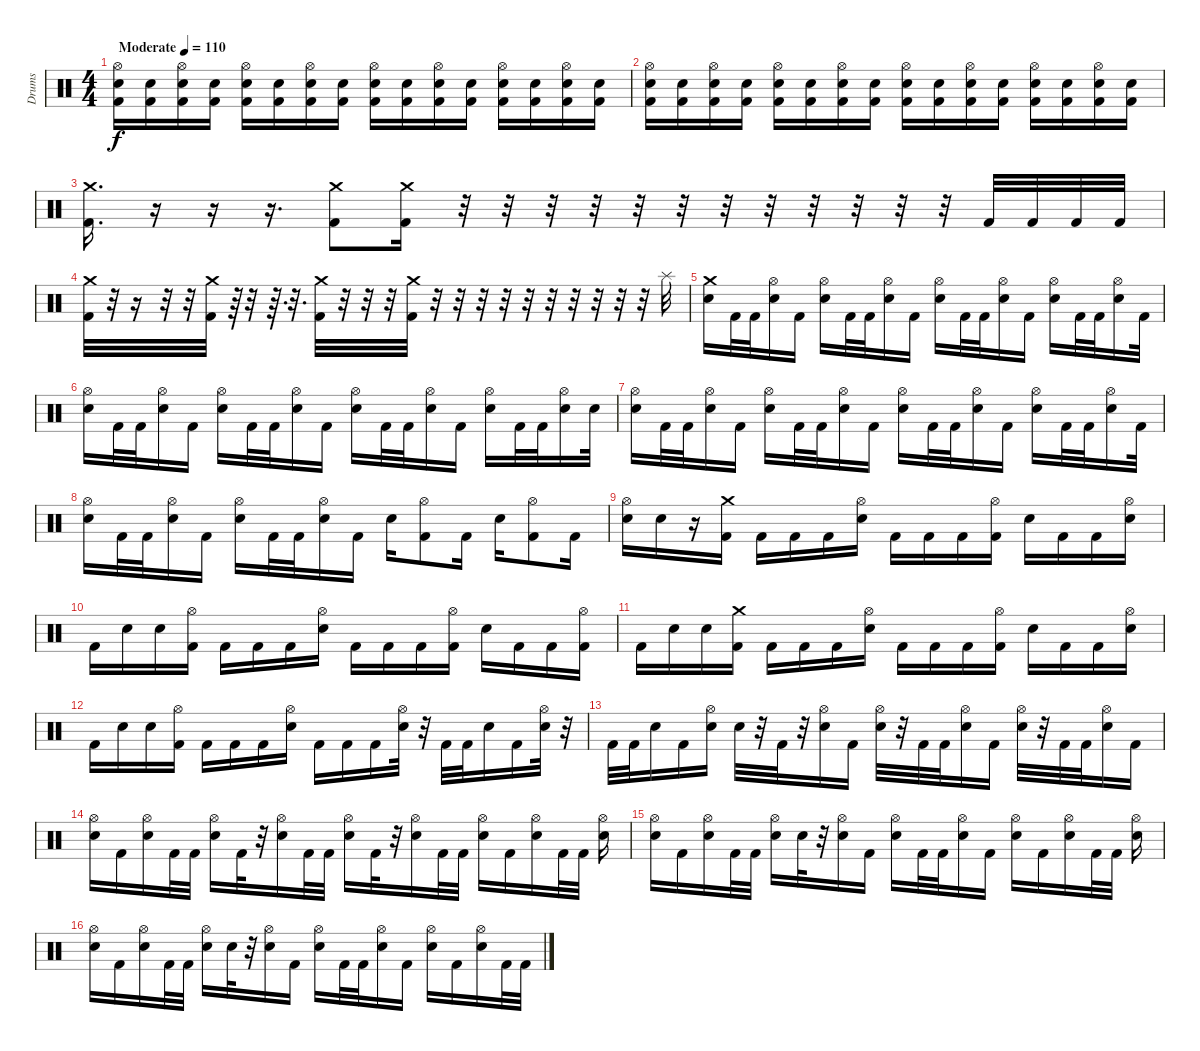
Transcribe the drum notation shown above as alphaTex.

\track ("Drums" "Drums") {instrument percussion}
\staff {score}
\articulation defaults
\ts (4 4)
\tempo (110 "Moderate")
\clef neutral
\ks c
("Hi-Hat (open)" "Snare (hit) 2" "Kick (hit) 2").16{dy f} ("Snare (hit) 2" "Kick (hit) 2").16 ("Hi-Hat (open)" "Snare (hit) 2" "Kick (hit) 2").16 ("Snare (hit) 2" "Kick (hit) 2").16 ("Hi-Hat (open)" "Snare (hit) 2" "Kick (hit) 2").16 ("Snare (hit) 2" "Kick (hit) 2").16 ("Hi-Hat (open)" "Snare (hit) 2" "Kick (hit) 2").16 ("Snare (hit) 2" "Kick (hit) 2").16 ("Hi-Hat (open)" "Snare (hit) 2" "Kick (hit) 2").16 ("Snare (hit) 2" "Kick (hit) 2").16 ("Hi-Hat (open)" "Snare (hit) 2" "Kick (hit) 2").16 ("Snare (hit) 2" "Kick (hit) 2").16 ("Hi-Hat (open)" "Snare (hit) 2" "Kick (hit) 2").16 ("Snare (hit) 2" "Kick (hit) 2").16 ("Hi-Hat (open)" "Snare (hit) 2" "Kick (hit) 2").16 ("Snare (hit) 2" "Kick (hit) 2").16 |
("Hi-Hat (open)" "Snare (hit) 2" "Kick (hit) 2").16 ("Snare (hit) 2" "Kick (hit) 2").16 ("Hi-Hat (open)" "Snare (hit) 2" "Kick (hit) 2").16 ("Snare (hit) 2" "Kick (hit) 2").16 ("Hi-Hat (open)" "Snare (hit) 2" "Kick (hit) 2").16 ("Snare (hit) 2" "Kick (hit) 2").16 ("Hi-Hat (open)" "Snare (hit) 2" "Kick (hit) 2").16 ("Snare (hit) 2" "Kick (hit) 2").16 ("Hi-Hat (open)" "Snare (hit) 2" "Kick (hit) 2").16 ("Snare (hit) 2" "Kick (hit) 2").16 ("Hi-Hat (open)" "Snare (hit) 2" "Kick (hit) 2").16 ("Snare (hit) 2" "Kick (hit) 2").16 ("Hi-Hat (open)" "Snare (hit) 2" "Kick (hit) 2").16 ("Snare (hit) 2" "Kick (hit) 2").16 ("Hi-Hat (open)" "Snare (hit) 2" "Kick (hit) 2").16 ("Snare (hit) 2" "Kick (hit) 2").16 |
("Crash medium (hit)" "Kick (hit) 2").16{d} r.16 r.16 r.16{d} ("Crash medium (hit)" "Kick (hit) 2").8 ("Crash medium (hit)" "Kick (hit) 2").16 r.32 r.32 r.32 r.32 r.32 r.32 r.32 r.32 r.32 r.32 r.32 r.32 "Kick (hit) 2".32 "Kick (hit) 2".32 "Kick (hit) 2".32 "Kick (hit) 2".32 |
("Crash medium (hit)" "Kick (hit) 2").32 r.32 r.16 r.32 r.32 ("Crash medium (hit)" "Kick (hit) 2").32 r.64 r.32 r.64{d} r.32{d} ("Crash medium (hit)" "Kick (hit) 2").32 r.32 r.32 r.32 ("Crash medium (hit)" "Kick (hit) 2").32 r.32 r.32 r.32 r.32 r.32 r.32 r.32 r.32 r.32 r.32 "Splash (hit)".32 |
("Crash medium (hit)" "Snare (hit) 2").16 "Kick (hit) 2".32 "Kick (hit) 2".32 ("Hi-Hat (open)" "Snare (hit) 2").16 "Kick (hit) 2".16 ("Hi-Hat (open)" "Snare (hit) 2").16 "Kick (hit) 2".32 "Kick (hit) 2".32 ("Hi-Hat (open)" "Snare (hit) 2").16 "Kick (hit) 2".16 ("Hi-Hat (open)" "Snare (hit) 2").16 "Kick (hit) 2".32 "Kick (hit) 2".32 ("Hi-Hat (open)" "Snare (hit) 2").16 "Kick (hit) 2".16 ("Hi-Hat (open)" "Snare (hit) 2").16 "Kick (hit) 2".32 "Kick (hit) 2".32 ("Hi-Hat (open)" "Snare (hit) 2").16 "Kick (hit) 2".32 |
("Hi-Hat (open)" "Snare (hit) 2").16 "Kick (hit) 2".32 "Kick (hit) 2".32 ("Hi-Hat (open)" "Snare (hit) 2").16 "Kick (hit) 2".16 ("Hi-Hat (open)" "Snare (hit) 2").16 "Kick (hit) 2".32 "Kick (hit) 2".32 ("Hi-Hat (open)" "Snare (hit) 2").16 "Kick (hit) 2".16 ("Hi-Hat (open)" "Snare (hit) 2").16 "Kick (hit) 2".32 "Kick (hit) 2".32 ("Hi-Hat (open)" "Snare (hit) 2").16 "Kick (hit) 2".16 ("Hi-Hat (open)" "Snare (hit) 2").16 "Kick (hit) 2".32 "Kick (hit) 2".32 ("Hi-Hat (open)" "Snare (hit) 2").16 "Snare (hit) 2".32 |
("Hi-Hat (open)" "Snare (hit) 2").16 "Kick (hit) 2".32 "Kick (hit) 2".32 ("Hi-Hat (open)" "Snare (hit) 2").16 "Kick (hit) 2".16 ("Hi-Hat (open)" "Snare (hit) 2").16 "Kick (hit) 2".32 "Kick (hit) 2".32 ("Hi-Hat (open)" "Snare (hit) 2").16 "Kick (hit) 2".16 ("Hi-Hat (open)" "Snare (hit) 2").16 "Kick (hit) 2".32 "Kick (hit) 2".32 ("Hi-Hat (open)" "Snare (hit) 2").16 "Kick (hit) 2".16 ("Hi-Hat (open)" "Snare (hit) 2").16 "Kick (hit) 2".32 "Kick (hit) 2".32 ("Hi-Hat (open)" "Snare (hit) 2").16 "Kick (hit) 2".32 |
("Hi-Hat (open)" "Snare (hit) 2").16 "Kick (hit) 2".32 "Kick (hit) 2".32 ("Hi-Hat (open)" "Snare (hit) 2").16 "Kick (hit) 2".16 ("Hi-Hat (open)" "Snare (hit) 2").16 "Kick (hit) 2".32 "Kick (hit) 2".32 ("Hi-Hat (open)" "Snare (hit) 2").16 "Kick (hit) 2".16 "Snare (hit) 2".16 ("Hi-Hat (open)" "Kick (hit) 2").8 "Kick (hit) 2".16 "Snare (hit) 2".16 ("Hi-Hat (open)" "Kick (hit) 2").8 "Kick (hit) 2".16 |
("Hi-Hat (open)" "Snare (hit) 2").16 "Snare (hit) 2".16 r.16 ("Crash medium (hit)" "Kick (hit) 2").16 "Kick (hit) 2".16 "Kick (hit) 2".16 "Kick (hit) 2".16 ("Hi-Hat (open)" "Snare (hit) 2").16 "Kick (hit) 2".16 "Kick (hit) 2".16 "Kick (hit) 2".16 ("Hi-Hat (open)" "Kick (hit) 2").16 "Snare (hit) 2".16 "Kick (hit) 2".16 "Kick (hit) 2".16 ("Hi-Hat (open)" "Snare (hit) 2").16 |
"Kick (hit) 2".16 "Snare (hit) 2".16 "Snare (hit) 2".16 ("Hi-Hat (open)" "Kick (hit) 2").16 "Kick (hit) 2".16 "Kick (hit) 2".16 "Kick (hit) 2".16 ("Hi-Hat (open)" "Snare (hit) 2").16 "Kick (hit) 2".16 "Kick (hit) 2".16 "Kick (hit) 2".16 ("Hi-Hat (open)" "Kick (hit) 2").16 "Snare (hit) 2".16 "Kick (hit) 2".16 "Kick (hit) 2".16 ("Hi-Hat (open)" "Kick (hit) 2").16 |
"Kick (hit) 2".16 "Snare (hit) 2".16 "Snare (hit) 2".16 ("Crash medium (hit)" "Kick (hit) 2").16 "Kick (hit) 2".16 "Kick (hit) 2".16 "Kick (hit) 2".16 ("Hi-Hat (open)" "Snare (hit) 2").16 "Kick (hit) 2".16 "Kick (hit) 2".16 "Kick (hit) 2".16 ("Hi-Hat (open)" "Kick (hit) 2").16 "Snare (hit) 2".16 "Kick (hit) 2".16 "Kick (hit) 2".16 ("Hi-Hat (open)" "Snare (hit) 2").16 |
"Kick (hit) 2".16 "Snare (hit) 2".16 "Snare (hit) 2".16 ("Hi-Hat (open)" "Kick (hit) 2").16 "Kick (hit) 2".16 "Kick (hit) 2".16 "Kick (hit) 2".16 ("Hi-Hat (open)" "Snare (hit) 2").16 "Kick (hit) 2".16 "Kick (hit) 2".16 "Kick (hit) 2".16 ("Hi-Hat (open)" "Snare (hit) 2").32 r.32 "Kick (hit) 2".32 "Kick (hit) 2".32 "Snare (hit) 2".16 "Kick (hit) 2".16 ("Hi-Hat (open)" "Snare (hit) 2").32 r.32 |
"Kick (hit) 2".32 "Kick (hit) 2".32 "Snare (hit) 2".16 "Kick (hit) 2".16 ("Hi-Hat (open)" "Snare (hit) 2").16 "Snare (hit) 2".32 r.32 "Kick (hit) 2".32 r.32 ("Hi-Hat (open)" "Snare (hit) 2").16 "Kick (hit) 2".16 ("Hi-Hat (open)" "Snare (hit) 2").32 r.32 "Kick (hit) 2".32 "Kick (hit) 2".32 ("Hi-Hat (open)" "Snare (hit) 2").16 "Kick (hit) 2".16 ("Hi-Hat (open)" "Snare (hit) 2").32 r.32 "Kick (hit) 2".32 "Kick (hit) 2".32 ("Hi-Hat (open)" "Snare (hit) 2").16 "Kick (hit) 2".16 |
("Hi-Hat (open)" "Snare (hit) 2").16 "Kick (hit) 2".16 ("Hi-Hat (open)" "Snare (hit) 2").16 "Kick (hit) 2".32 "Kick (hit) 2".32 ("Hi-Hat (open)" "Snare (hit) 2").16 "Kick (hit) 2".32 r.32 ("Hi-Hat (open)" "Snare (hit) 2").16 "Kick (hit) 2".32 "Kick (hit) 2".32 ("Hi-Hat (open)" "Snare (hit) 2").16 "Kick (hit) 2".32 r.32 ("Hi-Hat (open)" "Snare (hit) 2").16 "Kick (hit) 2".32 "Kick (hit) 2".32 ("Hi-Hat (open)" "Snare (hit) 2").16 "Kick (hit) 2".16 ("Hi-Hat (open)" "Snare (hit) 2").16 "Kick (hit) 2".32 "Kick (hit) 2".32 ("Hi-Hat (open)" "Snare (hit) 2").16 |
("Hi-Hat (open)" "Snare (hit) 2").16 "Kick (hit) 2".16 ("Hi-Hat (open)" "Snare (hit) 2").16 "Kick (hit) 2".32 "Kick (hit) 2".32 ("Hi-Hat (open)" "Snare (hit) 2").16 "Snare (hit) 2".32 r.32 ("Hi-Hat (open)" "Snare (hit) 2").16 "Kick (hit) 2".16 ("Hi-Hat (open)" "Snare (hit) 2").16 "Kick (hit) 2".32 "Kick (hit) 2".32 ("Hi-Hat (open)" "Snare (hit) 2").16 "Kick (hit) 2".16 ("Hi-Hat (open)" "Snare (hit) 2").16 "Kick (hit) 2".16 ("Hi-Hat (open)" "Snare (hit) 2").16 "Kick (hit) 2".32 "Kick (hit) 2".32 ("Hi-Hat (open)" "Snare (hit) 2").16 |
("Hi-Hat (open)" "Snare (hit) 2").16 "Kick (hit) 2".16 ("Hi-Hat (open)" "Snare (hit) 2").16 "Kick (hit) 2".32 "Kick (hit) 2".32 ("Hi-Hat (open)" "Snare (hit) 2").16 "Snare (hit) 2".32 r.32 ("Hi-Hat (open)" "Snare (hit) 2").16 "Kick (hit) 2".16 ("Hi-Hat (open)" "Snare (hit) 2").16 "Kick (hit) 2".32 "Kick (hit) 2".32 ("Hi-Hat (open)" "Snare (hit) 2").16 "Kick (hit) 2".16 ("Hi-Hat (open)" "Snare (hit) 2").16 "Kick (hit) 2".16 ("Hi-Hat (open)" "Snare (hit) 2").16 "Kick (hit) 2".32 "Kick (hit) 2".32
